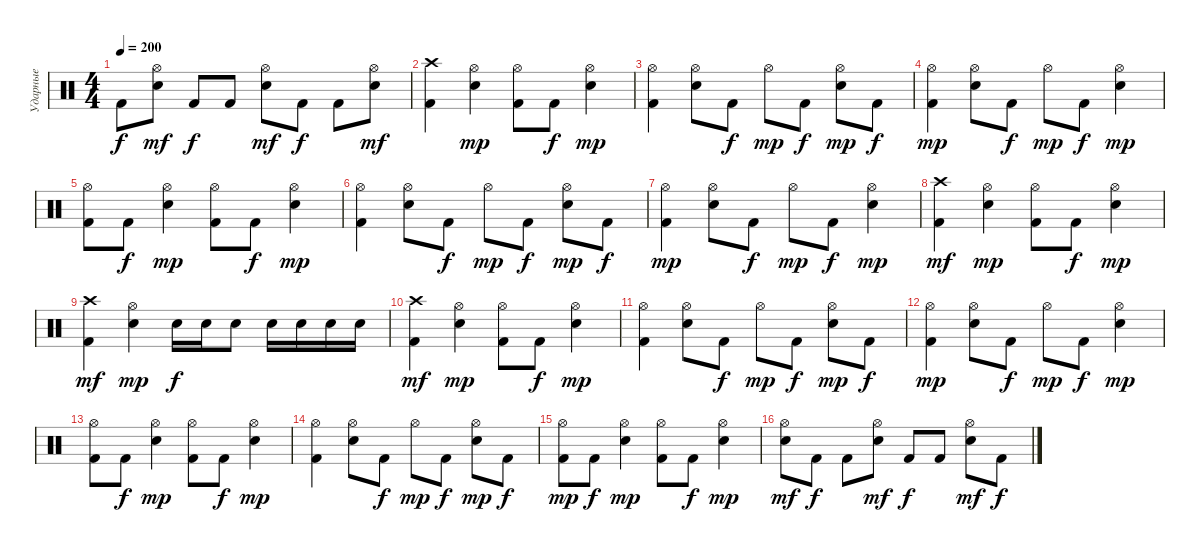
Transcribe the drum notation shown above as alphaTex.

\track ("Ударные" "Ударные") {instrument percussion}
\staff {score}
\articulation defaults
\ts (4 4)
\tempo 200
\clef neutral
\ks c "Kick (hit) 2".8{dy f}
("Electric Snare (hit)" "Hi-Hat (open)").8{dy mf} "Kick (hit) 2".8{dy f} "Kick (hit) 2".8 ("Electric Snare (hit)" "Hi-Hat (open)").8{dy mf} "Kick (hit) 2".8{dy f} "Kick (hit) 2".8 ("Electric Snare (hit)" "Hi-Hat (open)").8{dy mf} |
("Kick (hit) 2" "Crash high (hit)").4 ("Electric Snare (hit)" "Hi-Hat (open)").4{dy mp} ("Kick (hit) 2" "Hi-Hat (open)").8 "Kick (hit) 2".8{dy f} ("Electric Snare (hit)" "Hi-Hat (open)").4{dy mp} |
("Kick (hit) 2" "Hi-Hat (open)").4 ("Electric Snare (hit)" "Hi-Hat (open)").8 "Kick (hit) 2".8{dy f} "Hi-Hat (open)".8{dy mp} "Kick (hit) 2".8{dy f} ("Electric Snare (hit)" "Hi-Hat (open)").8{dy mp} "Kick (hit) 2".8{dy f} |
("Kick (hit) 2" "Hi-Hat (open)").4{dy mp} ("Electric Snare (hit)" "Hi-Hat (open)").8 "Kick (hit) 2".8{dy f} "Hi-Hat (open)".8{dy mp} "Kick (hit) 2".8{dy f} ("Electric Snare (hit)" "Hi-Hat (open)").4{dy mp} |
("Kick (hit) 2" "Hi-Hat (open)").8 "Kick (hit) 2".8{dy f} ("Electric Snare (hit)" "Hi-Hat (open)").4{dy mp} ("Kick (hit) 2" "Hi-Hat (open)").8 "Kick (hit) 2".8{dy f} ("Electric Snare (hit)" "Hi-Hat (open)").4{dy mp} |
("Kick (hit) 2" "Hi-Hat (open)").4 ("Electric Snare (hit)" "Hi-Hat (open)").8 "Kick (hit) 2".8{dy f} "Hi-Hat (open)".8{dy mp} "Kick (hit) 2".8{dy f} ("Electric Snare (hit)" "Hi-Hat (open)").8{dy mp} "Kick (hit) 2".8{dy f} |
("Kick (hit) 2" "Hi-Hat (open)").4{dy mp} ("Electric Snare (hit)" "Hi-Hat (open)").8 "Kick (hit) 2".8{dy f} "Hi-Hat (open)".8{dy mp} "Kick (hit) 2".8{dy f} ("Electric Snare (hit)" "Hi-Hat (open)").4{dy mp} |
("Kick (hit) 2" "Crash high (hit)").4{dy mf} ("Electric Snare (hit)" "Hi-Hat (open)").4{dy mp} ("Kick (hit) 2" "Hi-Hat (open)").8 "Kick (hit) 2".8{dy f} ("Electric Snare (hit)" "Hi-Hat (open)").4{dy mp} |
("Kick (hit) 2" "Crash high (hit)").4{dy mf} ("Electric Snare (hit)" "Hi-Hat (open)").4{dy mp} "Electric Snare (hit)".16{dy f} "Electric Snare (hit)".16 "Electric Snare (hit)".8 "Electric Snare (hit)".16 "Electric Snare (hit)".16 "Electric Snare (hit)".16 "Electric Snare (hit)".16 |
("Kick (hit) 2" "Crash high (hit)").4{dy mf} ("Electric Snare (hit)" "Hi-Hat (open)").4{dy mp} ("Kick (hit) 2" "Hi-Hat (open)").8 "Kick (hit) 2".8{dy f} ("Electric Snare (hit)" "Hi-Hat (open)").4{dy mp} |
("Kick (hit) 2" "Hi-Hat (open)").4 ("Electric Snare (hit)" "Hi-Hat (open)").8 "Kick (hit) 2".8{dy f} "Hi-Hat (open)".8{dy mp} "Kick (hit) 2".8{dy f} ("Electric Snare (hit)" "Hi-Hat (open)").8{dy mp} "Kick (hit) 2".8{dy f} |
("Kick (hit) 2" "Hi-Hat (open)").4{dy mp} ("Electric Snare (hit)" "Hi-Hat (open)").8 "Kick (hit) 2".8{dy f} "Hi-Hat (open)".8{dy mp} "Kick (hit) 2".8{dy f} ("Electric Snare (hit)" "Hi-Hat (open)").4{dy mp} |
("Kick (hit) 2" "Hi-Hat (open)").8 "Kick (hit) 2".8{dy f} ("Electric Snare (hit)" "Hi-Hat (open)").4{dy mp} ("Kick (hit) 2" "Hi-Hat (open)").8 "Kick (hit) 2".8{dy f} ("Electric Snare (hit)" "Hi-Hat (open)").4{dy mp} |
("Kick (hit) 2" "Hi-Hat (open)").4 ("Electric Snare (hit)" "Hi-Hat (open)").8 "Kick (hit) 2".8{dy f} "Hi-Hat (open)".8{dy mp} "Kick (hit) 2".8{dy f} ("Electric Snare (hit)" "Hi-Hat (open)").8{dy mp} "Kick (hit) 2".8{dy f} |
("Kick (hit) 2" "Hi-Hat (open)").8{dy mp} "Kick (hit) 2".8{dy f} ("Electric Snare (hit)" "Hi-Hat (open)").4{dy mp} ("Kick (hit) 2" "Hi-Hat (open)").8 "Kick (hit) 2".8{dy f} ("Electric Snare (hit)" "Hi-Hat (open)").4{dy mp} |
("Electric Snare (hit)" "Hi-Hat (open)").8{dy mf} "Kick (hit) 2".8{dy f} "Kick (hit) 2".8 ("Electric Snare (hit)" "Hi-Hat (open)").8{dy mf} "Kick (hit) 2".8{dy f} "Kick (hit) 2".8 ("Electric Snare (hit)" "Hi-Hat (open)").8{dy mf} "Kick (hit) 2".8{dy f}
